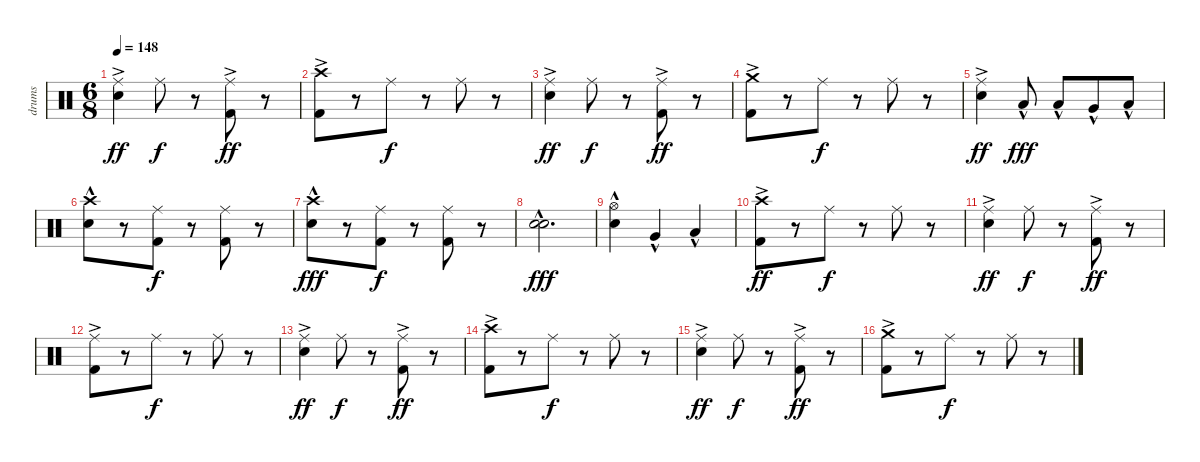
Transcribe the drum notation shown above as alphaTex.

\track ("drums" "drums") {instrument percussion}
\staff {score}
\articulation defaults
\ts (6 8)
\tempo 148
\clef neutral
\ks c
("Ride (middle)" "Electric Snare (hit)"{ac}).4{dy ff} "Ride (middle)".8{dy f} r.8 ("Ride (middle)" "Kick (hit) 2"{ac}).8{dy ff} r.8 |
("Crash high (hit)" "Kick (hit) 2"{ac}).8 r.8 "Ride (middle)".8{dy f} r.8 "Ride (middle)".8 r.8 |
("Ride (middle)" "Electric Snare (hit)"{ac}).4{dy ff} "Ride (middle)".8{dy f} r.8 ("Ride (middle)" "Kick (hit) 2"{ac}).8{dy ff} r.8 |
("Crash medium (hit)" "Kick (hit) 2"{ac}).8 r.8 "Ride (middle)".8{dy f} r.8 "Ride (middle)".8 r.8 |
("Ride (middle)" "Electric Snare (hit)"{ac}).4{dy ff} "Low Tom (hit)"{hac}.8{dy fff} "Low Tom (hit)"{hac}.8 "Very Low Tom (hit)"{hac}.8 "Low Floor Tom (hit)"{hac}.8 |
("Crash high (hit)" "Electric Snare (hit)"{hac}).8 r.8 ("Ride (middle)" "Kick (hit) 2").8{dy f} r.8 ("Ride (middle)" "Kick (hit) 2").8 r.8 |
("Crash high (hit)" "Electric Snare (hit)"{hac}).8{dy fff} r.8 ("Ride (middle)" "Kick (hit) 2").8{dy f} r.8 ("Ride (middle)" "Kick (hit) 2").8 r.8 |
("Electric Snare (hit)"{hac} "Electric Snare (hit)").2{d dy fff} |
("Hi-Hat (open)" "Electric Snare (hit)"{hac}).4 "Very Low Tom (hit)"{hac}.4 "Low Floor Tom (hit)"{hac}.4 |
("Crash high (hit)" "Kick (hit) 2"{ac}).8{dy ff} r.8 "Ride (middle)".8{dy f} r.8 "Ride (middle)".8 r.8 |
("Ride (middle)" "Electric Snare (hit)"{ac}).4{dy ff} "Ride (middle)".8{dy f} r.8 ("Ride (middle)" "Kick (hit) 2"{ac}).8{dy ff} r.8 |
("Ride (middle)" "Kick (hit) 2"{ac}).8 r.8 "Ride (middle)".8{dy f} r.8 "Ride (middle)".8 r.8 |
("Ride (middle)" "Electric Snare (hit)"{ac}).4{dy ff} "Ride (middle)".8{dy f} r.8 ("Ride (middle)" "Kick (hit) 2"{ac}).8{dy ff} r.8 |
("Crash high (hit)" "Kick (hit) 2"{ac}).8 r.8 "Ride (middle)".8{dy f} r.8 "Ride (middle)".8 r.8 |
("Ride (middle)" "Electric Snare (hit)"{ac}).4{dy ff} "Ride (middle)".8{dy f} r.8 ("Ride (middle)" "Kick (hit) 2"{ac}).8{dy ff} r.8 |
("Crash medium (hit)" "Kick (hit) 2"{ac}).8 r.8 "Ride (middle)".8{dy f} r.8 "Ride (middle)".8 r.8
